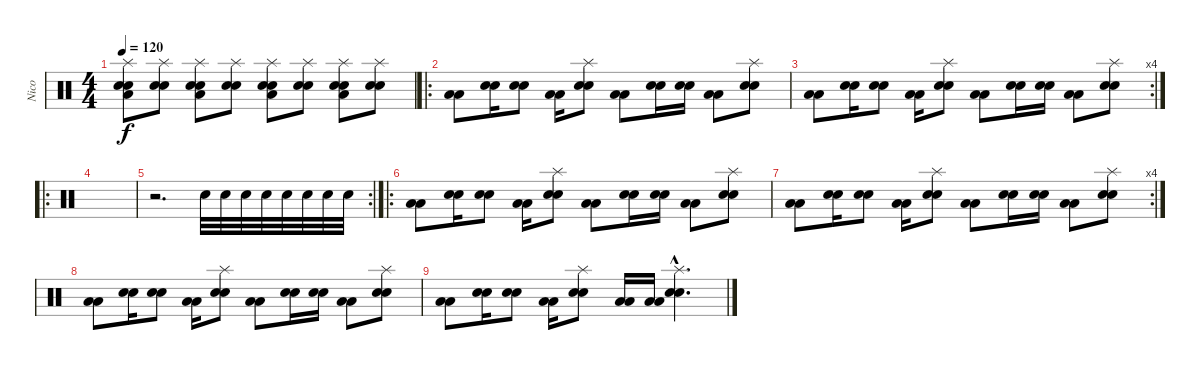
\track ("Nico" "Nico") {instrument percussion}
\staff {score}
\articulation defaults
\ts (4 4)
\tempo 120
\clef neutral
\ks c
("Splash (hit)" "Snare (hit) 2" "Snare (hit) 2" "Low Floor Tom (hit)").8{dy f} ("Splash (hit)" "Snare (hit) 2" "Snare (hit) 2").8 ("Splash (hit)" "Snare (hit) 2" "Snare (hit) 2" "Low Floor Tom (hit)").8 ("Splash (hit)" "Snare (hit) 2" "Snare (hit) 2").8 ("Splash (hit)" "Snare (hit) 2" "Snare (hit) 2" "Low Floor Tom (hit)").8 ("Splash (hit)" "Snare (hit) 2" "Snare (hit) 2").8 ("Splash (hit)" "Snare (hit) 2" "Snare (hit) 2" "Low Floor Tom (hit)").8 ("Splash (hit)" "Snare (hit) 2" "Snare (hit) 2").8 |
\ro
("Low Floor Tom (hit)" "Low Floor Tom (hit)").8 ("Snare (hit) 2" "Snare (hit) 2").16 ("Snare (hit) 2" "Snare (hit) 2").8 ("Low Floor Tom (hit)" "Low Floor Tom (hit)").16 ("Splash (hit)" "Snare (hit) 2" "Snare (hit) 2").8 ("Low Floor Tom (hit)" "Low Floor Tom (hit)").8 ("Snare (hit) 2" "Snare (hit) 2").16 ("Snare (hit) 2" "Snare (hit) 2").16 ("Low Floor Tom (hit)" "Low Floor Tom (hit)").8 ("Splash (hit)" "Snare (hit) 2" "Snare (hit) 2").8 |
\rc 4
("Low Floor Tom (hit)" "Low Floor Tom (hit)").8 ("Snare (hit) 2" "Snare (hit) 2").16 ("Snare (hit) 2" "Snare (hit) 2").8 ("Low Floor Tom (hit)" "Low Floor Tom (hit)").16 ("Splash (hit)" "Snare (hit) 2" "Snare (hit) 2").8 ("Low Floor Tom (hit)" "Low Floor Tom (hit)").8 ("Snare (hit) 2" "Snare (hit) 2").16 ("Snare (hit) 2" "Snare (hit) 2").16 ("Low Floor Tom (hit)" "Low Floor Tom (hit)").8 ("Splash (hit)" "Snare (hit) 2" "Snare (hit) 2").8 |
\ro
|
\rc 2
r.2{d} "Snare (hit) 2".32 "Snare (hit) 2".32 "Snare (hit) 2".32 "Snare (hit) 2".32 "Snare (hit) 2".32 "Snare (hit) 2".32 "Snare (hit) 2".32 "Snare (hit) 2".32 |
\ro
("Low Floor Tom (hit)" "Low Floor Tom (hit)").8 ("Snare (hit) 2" "Snare (hit) 2").16 ("Snare (hit) 2" "Snare (hit) 2").8 ("Low Floor Tom (hit)" "Low Floor Tom (hit)").16 ("Splash (hit)" "Snare (hit) 2" "Snare (hit) 2").8 ("Low Floor Tom (hit)" "Low Floor Tom (hit)").8 ("Snare (hit) 2" "Snare (hit) 2").16 ("Snare (hit) 2" "Snare (hit) 2").16 ("Low Floor Tom (hit)" "Low Floor Tom (hit)").8 ("Splash (hit)" "Snare (hit) 2" "Snare (hit) 2").8 |
\rc 4
("Low Floor Tom (hit)" "Low Floor Tom (hit)").8 ("Snare (hit) 2" "Snare (hit) 2").16 ("Snare (hit) 2" "Snare (hit) 2").8 ("Low Floor Tom (hit)" "Low Floor Tom (hit)").16 ("Splash (hit)" "Snare (hit) 2" "Snare (hit) 2").8 ("Low Floor Tom (hit)" "Low Floor Tom (hit)").8 ("Snare (hit) 2" "Snare (hit) 2").16 ("Snare (hit) 2" "Snare (hit) 2").16 ("Low Floor Tom (hit)" "Low Floor Tom (hit)").8 ("Splash (hit)" "Snare (hit) 2" "Snare (hit) 2").8 |
("Low Floor Tom (hit)" "Low Floor Tom (hit)").8 ("Snare (hit) 2" "Snare (hit) 2").16 ("Snare (hit) 2" "Snare (hit) 2").8 ("Low Floor Tom (hit)" "Low Floor Tom (hit)").16 ("Splash (hit)" "Snare (hit) 2" "Snare (hit) 2").8 ("Low Floor Tom (hit)" "Low Floor Tom (hit)").8 ("Snare (hit) 2" "Snare (hit) 2").16 ("Snare (hit) 2" "Snare (hit) 2").16 ("Low Floor Tom (hit)" "Low Floor Tom (hit)").8 ("Splash (hit)" "Snare (hit) 2" "Snare (hit) 2").8 |
("Low Floor Tom (hit)" "Low Floor Tom (hit)").8 ("Snare (hit) 2" "Snare (hit) 2").16 ("Snare (hit) 2" "Snare (hit) 2").8 ("Low Floor Tom (hit)" "Low Floor Tom (hit)").16 ("Splash (hit)" "Snare (hit) 2" "Snare (hit) 2").8 ("Low Floor Tom (hit)" "Low Floor Tom (hit)").16 ("Low Floor Tom (hit)" "Low Floor Tom (hit)").16 ("Splash (hit)"{hac} "Snare (hit) 2"{hac} "Snare (hit) 2"{hac}).4{d}
